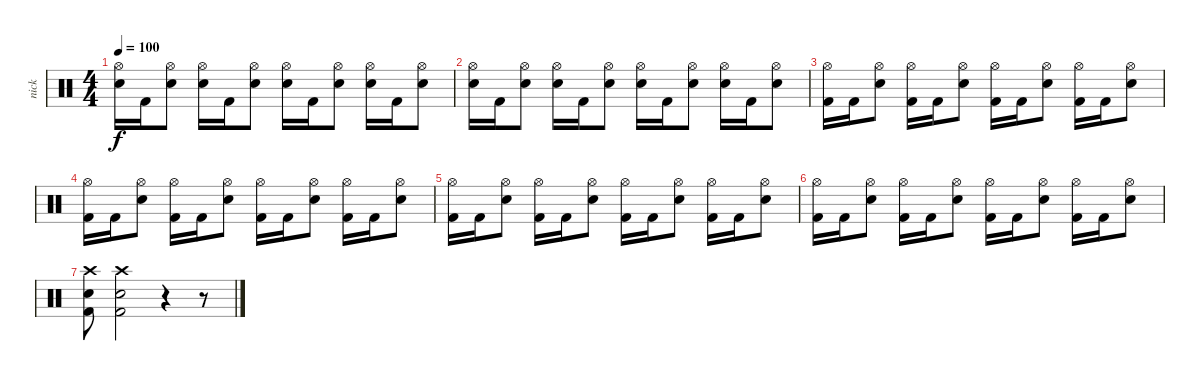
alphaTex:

\track ("nick" "nick") {instrument percussion}
\staff {score}
\articulation defaults
\ts (4 4)
\tempo 100
\clef neutral
\ks c
("Snare (hit) 2" "Hi-Hat (open)").16{dy f} "Kick (hit) 2".16 ("Snare (hit) 2" "Hi-Hat (open)").8 ("Snare (hit) 2" "Hi-Hat (open)").16 "Kick (hit) 2".16 ("Snare (hit) 2" "Hi-Hat (open)").8 ("Snare (hit) 2" "Hi-Hat (open)").16 "Kick (hit) 2".16 ("Snare (hit) 2" "Hi-Hat (open)").8 ("Snare (hit) 2" "Hi-Hat (open)").16 "Kick (hit) 2".16 ("Snare (hit) 2" "Hi-Hat (open)").8 |
("Snare (hit) 2" "Hi-Hat (open)").16 "Kick (hit) 2".16 ("Snare (hit) 2" "Hi-Hat (open)").8 ("Snare (hit) 2" "Hi-Hat (open)").16 "Kick (hit) 2".16 ("Snare (hit) 2" "Hi-Hat (open)").8 ("Snare (hit) 2" "Hi-Hat (open)").16 "Kick (hit) 2".16 ("Snare (hit) 2" "Hi-Hat (open)").8 ("Snare (hit) 2" "Hi-Hat (open)").16 "Kick (hit) 2".16 ("Snare (hit) 2" "Hi-Hat (open)").8 |
("Kick (hit) 2" "Hi-Hat (open)").16 "Kick (hit) 2".16 ("Snare (hit) 2" "Hi-Hat (open)").8 ("Kick (hit) 2" "Hi-Hat (open)").16 "Kick (hit) 2".16 ("Snare (hit) 2" "Hi-Hat (open)").8 ("Kick (hit) 2" "Hi-Hat (open)").16 "Kick (hit) 2".16 ("Snare (hit) 2" "Hi-Hat (open)").8 ("Kick (hit) 2" "Hi-Hat (open)").16 "Kick (hit) 2".16 ("Snare (hit) 2" "Hi-Hat (open)").8 |
("Kick (hit) 2" "Hi-Hat (open)").16 "Kick (hit) 2".16 ("Snare (hit) 2" "Hi-Hat (open)").8 ("Kick (hit) 2" "Hi-Hat (open)").16 "Kick (hit) 2".16 ("Snare (hit) 2" "Hi-Hat (open)").8 ("Kick (hit) 2" "Hi-Hat (open)").16 "Kick (hit) 2".16 ("Snare (hit) 2" "Hi-Hat (open)").8 ("Kick (hit) 2" "Hi-Hat (open)").16 "Kick (hit) 2".16 ("Snare (hit) 2" "Hi-Hat (open)").8 |
("Kick (hit) 2" "Hi-Hat (open)").16 "Kick (hit) 2".16 ("Snare (hit) 2" "Hi-Hat (open)").8 ("Kick (hit) 2" "Hi-Hat (open)").16 "Kick (hit) 2".16 ("Snare (hit) 2" "Hi-Hat (open)").8 ("Kick (hit) 2" "Hi-Hat (open)").16 "Kick (hit) 2".16 ("Snare (hit) 2" "Hi-Hat (open)").8 ("Kick (hit) 2" "Hi-Hat (open)").16 "Kick (hit) 2".16 ("Snare (hit) 2" "Hi-Hat (open)").8 |
("Kick (hit) 2" "Hi-Hat (open)").16 "Kick (hit) 2".16 ("Snare (hit) 2" "Hi-Hat (open)").8 ("Kick (hit) 2" "Hi-Hat (open)").16 "Kick (hit) 2".16 ("Snare (hit) 2" "Hi-Hat (open)").8 ("Kick (hit) 2" "Hi-Hat (open)").16 "Kick (hit) 2".16 ("Snare (hit) 2" "Hi-Hat (open)").8 ("Kick (hit) 2" "Hi-Hat (open)").16 "Kick (hit) 2".16 ("Snare (hit) 2" "Hi-Hat (open)").8 |
("Snare (hit) 2" "Kick (hit) 2" "Crash high (hit)").8 ("Snare (hit) 2" "Kick (hit) 2" "Crash high (hit)").2 r.4 r.8
